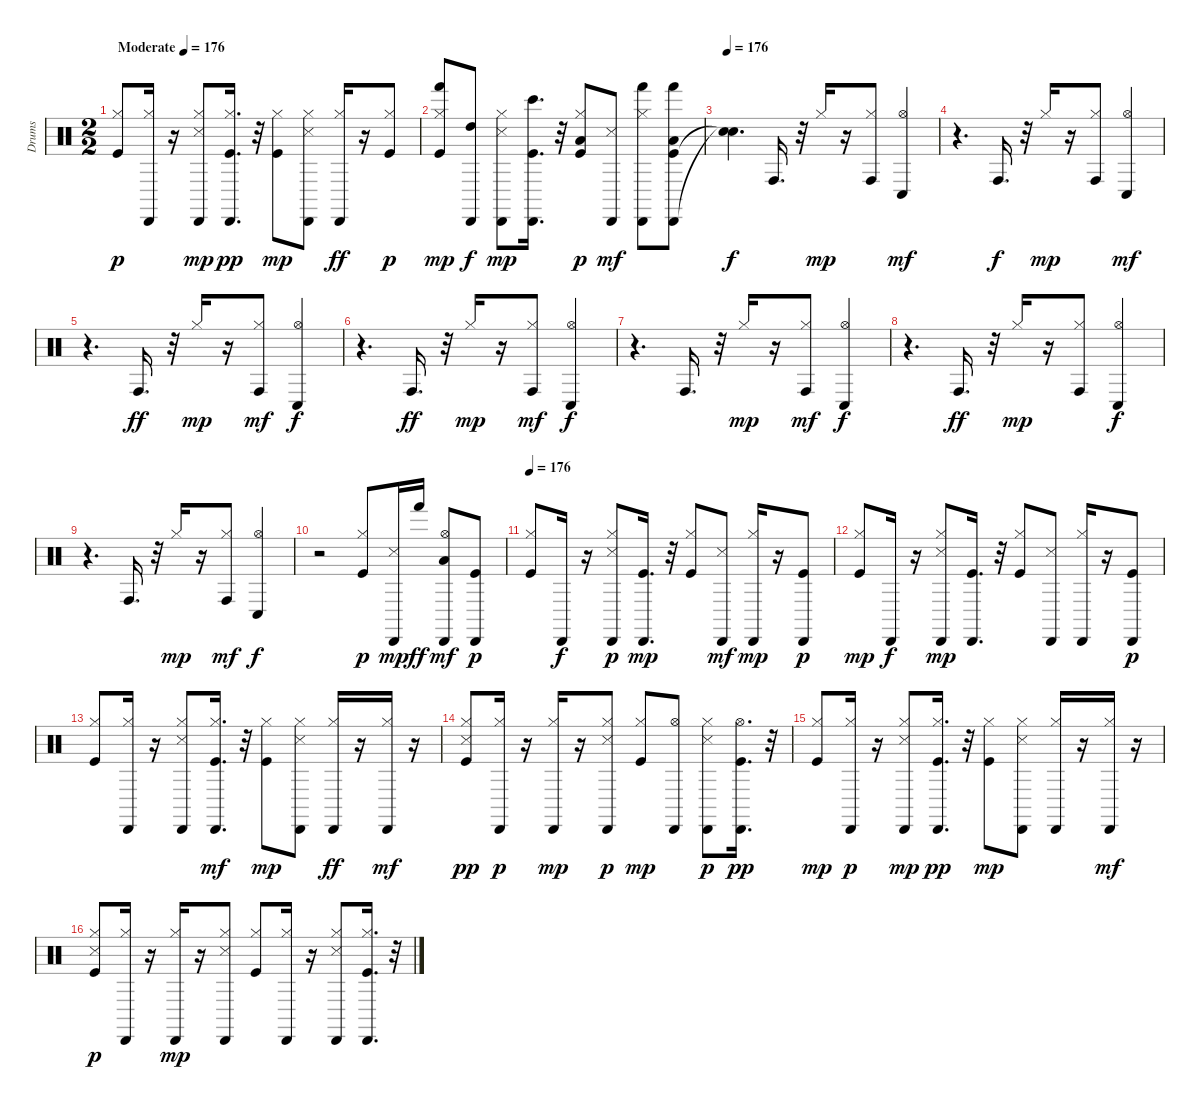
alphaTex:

\track ("Drums     " "Drums     ") {instrument percussion}
\staff {score}
\articulation defaults
\ts (2 2)
\tempo (176 "Moderate")
\clef neutral
\ks c
("Hi-Hat (closed)" "Kick (hit)").8{dy p} ("Cabasa (hit)" "Hi-Hat (closed)").16 r.16 ("Snare (side stick) 3" "Cabasa (hit)" "Hi-Hat (closed)").8{dy mp} ("Hi-Hat (closed)" "Cabasa (hit)" "Kick (hit)").16{d dy pp} r.32 ("Kick (hit)" "Hi-Hat (closed)").8{dy mp} ("Hi-Hat (closed)" "Cabasa (hit)" "Snare (side stick) 3").8 ("Hi-Hat (closed)" "Cabasa (hit)").16{dy ff} r.16 ("Hi-Hat (closed)" "Kick (hit)").8{dy p} |
("Kick (hit)" "Hand (hit)" "Hi-Hat (closed)").8{dy mp} ("High Tom (hit)" "Cabasa (hit)").8{dy f} ("Snare (side stick) 3" "Cabasa (hit)" "Hi-Hat (closed)").8{dy mp} ("Bongo High (hit)" "Kick (hit)" "Cabasa (hit)").16{d} r.32 ("Hi-Hat (closed)" "Low Tom (hit)" "Kick (hit)").8{dy p} ("Snare (side stick) 3" "Cabasa (hit)").8{dy mf} ("Hand (hit)" "Hi-Hat (closed)" "Cabasa (hit)").8 ("Cabasa (hit)" "Kick (hit)" "Hand (hit)" "Low Floor Tom (hit)").8 |
\tempo 176
("Snare (hit)"{t} "Snare (hit)"{t}).4{d dy f} "Conga high (hit)".16{d} r.32 "Hi-Hat (closed)".16{dy mp} r.16 ("Hi-Hat (closed)" "Conga high (hit)").8 ("Hi-Hat (open)" "Conga low (hit)").4{dy mf} |
r.4{d} "Conga high (hit)".16{d dy f} r.32 "Hi-Hat (closed)".16{dy mp} r.16 ("Hi-Hat (closed)" "Conga high (hit)").8 ("Conga low (hit)" "Hi-Hat (open)").4{dy mf} |
r.4{d} "Conga high (hit)".16{d dy ff} r.32 "Hi-Hat (closed)".16{dy mp} r.16 ("Conga high (hit)" "Hi-Hat (closed)").8{dy mf} ("Hi-Hat (open)" "Conga low (hit)").4{dy f} |
r.4{d} "Conga high (hit)".16{d dy ff} r.32 "Hi-Hat (closed)".16{dy mp} r.16 ("Conga high (hit)" "Hi-Hat (closed)").8{dy mf} ("Conga low (hit)" "Hi-Hat (open)").4{dy f} |
r.4{d} "Conga high (hit)".16{d} r.32 "Hi-Hat (closed)".16{dy mp} r.16 ("Hi-Hat (closed)" "Conga high (hit)").8{dy mf} ("Hi-Hat (open)" "Conga low (hit)").4{dy f} |
r.4{d} "Conga high (hit)".16{d dy ff} r.32 "Hi-Hat (closed)".16{dy mp} r.16 ("Conga high (hit)" "Hi-Hat (closed)").8 ("Hi-Hat (open)" "Conga low (hit)").4{dy f} |
r.4{d} "Conga high (hit)".16{d} r.32 "Hi-Hat (closed)".16{dy mp} r.16 ("Conga high (hit)" "Hi-Hat (closed)").8{dy mf} ("Conga low (hit)" "Hi-Hat (open)").4{dy f} |
r.2 ("Hi-Hat (closed)" "Kick (hit)").8{dy p} ("Cabasa (hit)" "Snare (side stick) 3").16{dy mp} "Hand (hit)".16{dy ff} ("Low Floor Tom (hit)" "Cabasa (hit)" "Hi-Hat (open)").8{dy mf} ("Cabasa (hit)" "Kick (hit)").8{dy p} |
\tempo 176
("Hi-Hat (closed)" "Kick (hit)").8 "Cabasa (hit)".16{dy f} r.16 ("Snare (side stick) 3" "Cabasa (hit)" "Hi-Hat (closed)").8{dy p} ("Kick (hit)" "Cabasa (hit)").16{d dy mp} r.32 ("Kick (hit)" "Hi-Hat (closed)").8 ("Snare (side stick) 3" "Cabasa (hit)").8{dy mf} ("Cabasa (hit)" "Hi-Hat (closed)").16{dy mp} r.16 ("Cabasa (hit)" "Kick (hit)").8{dy p} |
("Kick (hit)" "Hi-Hat (closed)").8{dy mp} "Cabasa (hit)".16{dy f} r.16 ("Hi-Hat (closed)" "Snare (side stick) 3" "Cabasa (hit)").8{dy mp} ("Kick (hit)" "Cabasa (hit)").16{d} r.32 ("Kick (hit)" "Hi-Hat (closed)").8 ("Cabasa (hit)" "Snare (side stick) 3").8 ("Cabasa (hit)" "Hi-Hat (closed)").16 r.16 ("Kick (hit)" "Cabasa (hit)").8{dy p} |
("Hi-Hat (closed)" "Kick (hit)").8 ("Cabasa (hit)" "Hi-Hat (closed)").16 r.16 ("Snare (side stick) 3" "Cabasa (hit)" "Hi-Hat (closed)").8 ("Kick (hit)" "Cabasa (hit)" "Hi-Hat (closed)").16{d dy mf} r.32 ("Kick (hit)" "Hi-Hat (closed)").8{dy mp} ("Snare (side stick) 3" "Cabasa (hit)" "Hi-Hat (closed)").8 ("Hi-Hat (closed)" "Cabasa (hit)").16{dy ff} r.16 ("Hi-Hat (closed)" "Cabasa (hit)").16{dy mf} r.16 |
("Hi-Hat (closed)" "Snare (side stick) 3" "Kick (hit)").8{dy pp} ("Hi-Hat (closed)" "Cabasa (hit)").16{dy p} r.16 ("Cabasa (hit)" "Hi-Hat (closed)").16{dy mp} r.16 ("Snare (side stick) 3" "Hi-Hat (closed)" "Cabasa (hit)").8{dy p} ("Kick (hit)" "Hi-Hat (closed)").8{dy mp} ("Hi-Hat (open)" "Cabasa (hit)").8 ("Cabasa (hit)" "Snare (side stick) 3" "Hi-Hat (closed)").8{dy p} ("Hi-Hat (open)" "Cabasa (hit)" "Kick (hit)").16{d dy pp} r.32 |
("Kick (hit)" "Hi-Hat (closed)").8{dy mp} ("Hi-Hat (closed)" "Cabasa (hit)").16{dy p} r.16 ("Cabasa (hit)" "Hi-Hat (closed)" "Snare (side stick) 3").8{dy mp} ("Hi-Hat (closed)" "Cabasa (hit)" "Kick (hit)").16{d dy pp} r.32 ("Kick (hit)" "Hi-Hat (closed)").8{dy mp} ("Snare (side stick) 3" "Cabasa (hit)" "Hi-Hat (closed)").8 ("Hi-Hat (closed)" "Cabasa (hit)").16 r.16 ("Hi-Hat (closed)" "Cabasa (hit)").16{dy mf} r.16 |
("Snare (side stick) 3" "Kick (hit)" "Hi-Hat (closed)").8{dy p} ("Hi-Hat (closed)" "Cabasa (hit)").16 r.16 ("Hi-Hat (closed)" "Cabasa (hit)").16{dy mp} r.16 ("Snare (side stick) 3" "Cabasa (hit)" "Hi-Hat (closed)").8 ("Kick (hit)" "Hi-Hat (closed)").8 ("Cabasa (hit)" "Hi-Hat (closed)").16 r.16 ("Cabasa (hit)" "Hi-Hat (closed)" "Snare (side stick) 3").8 ("Cabasa (hit)" "Kick (hit)" "Hi-Hat (closed)").16{d} r.32
